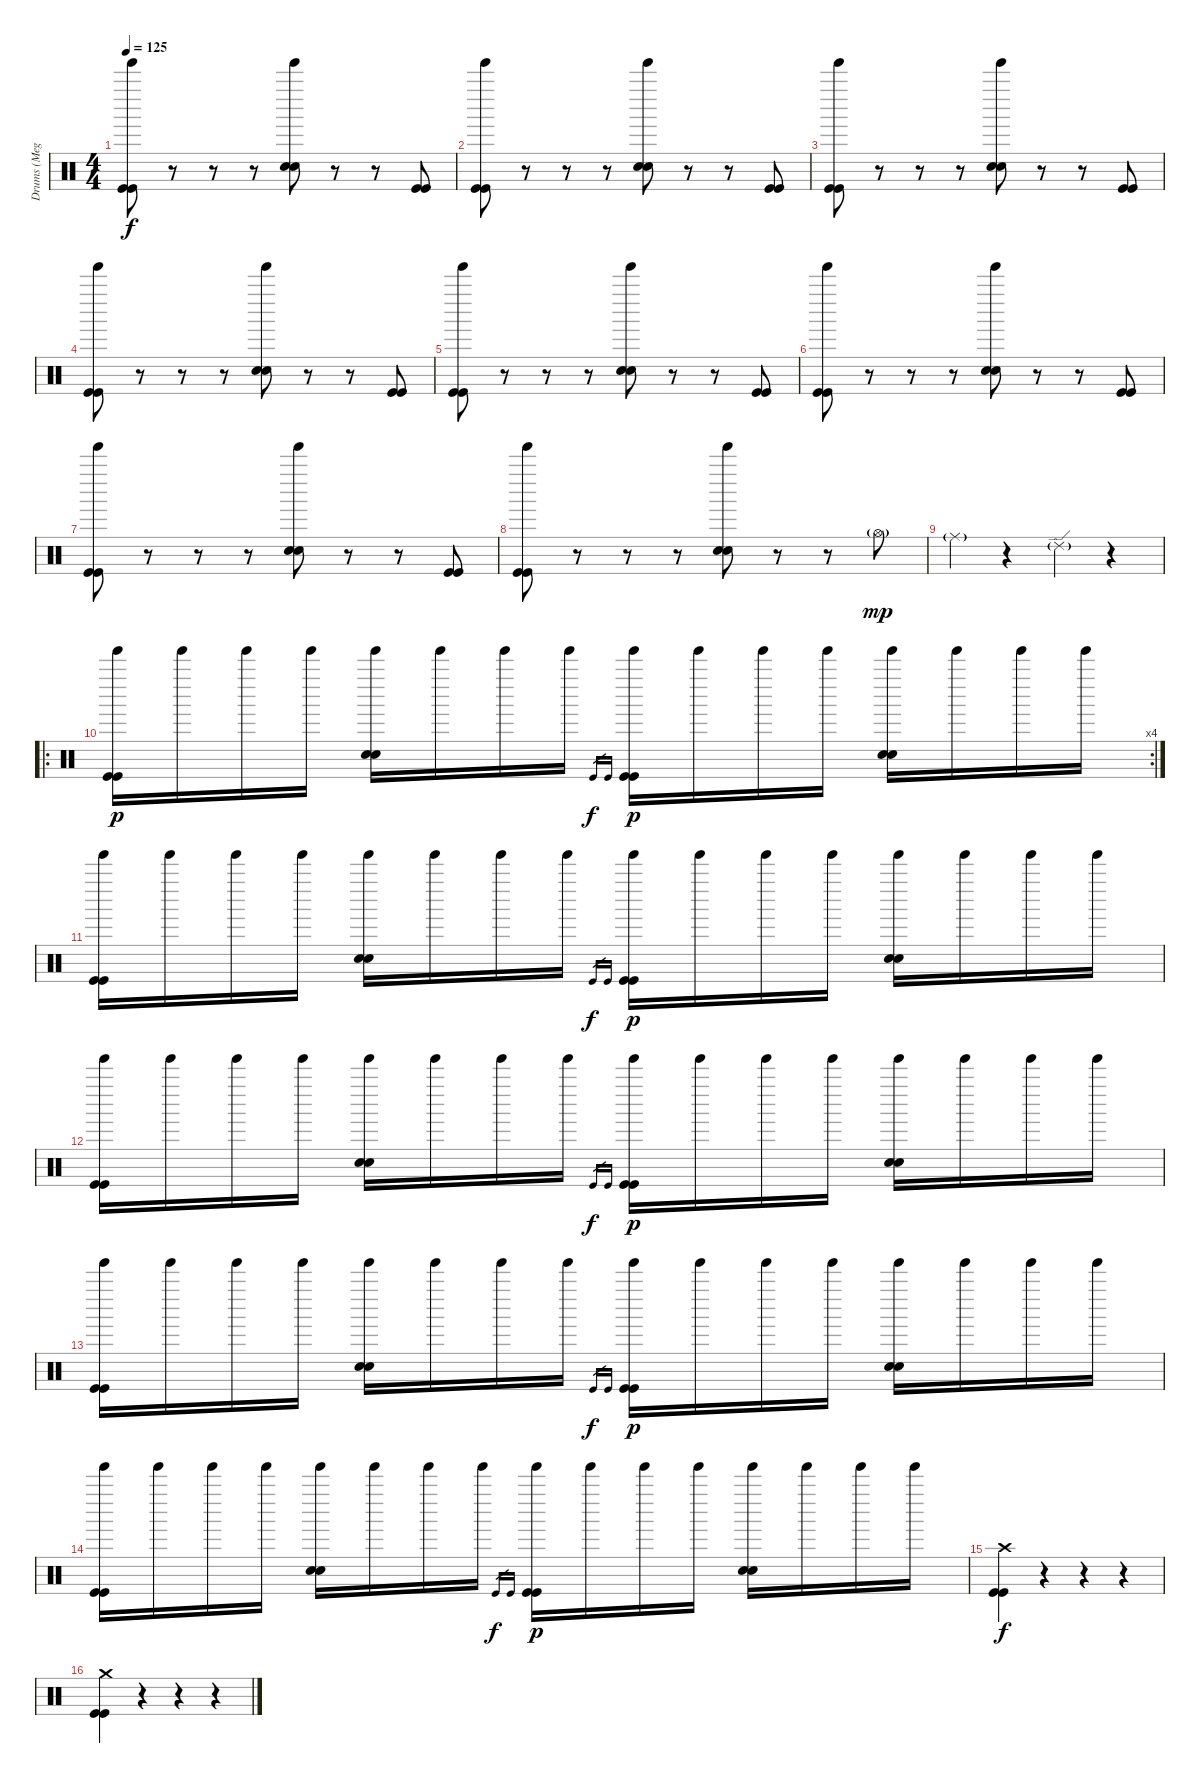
\track ("Drums (Meg)" "Drums (Meg") {instrument percussion}
\staff {score}
\articulation defaults
\ts (4 4)
\tempo 125
\clef neutral
\ks c
("Tinkle Bell (hit)" "Kick (hit)" "Kick (hit)").8{dy f} r.8 r.8 r.8 ("Tinkle Bell (hit)" "Snare (hit) 2" "Snare (hit) 2").8 r.8 r.8 ("Kick (hit)" "Kick (hit)").8 |
("Tinkle Bell (hit)" "Kick (hit)" "Kick (hit)").8 r.8 r.8 r.8 ("Tinkle Bell (hit)" "Snare (hit) 2" "Snare (hit) 2").8 r.8 r.8 ("Kick (hit)" "Kick (hit)").8 |
("Tinkle Bell (hit)" "Kick (hit)" "Kick (hit)").8 r.8 r.8 r.8 ("Tinkle Bell (hit)" "Snare (hit) 2" "Snare (hit) 2").8 r.8 r.8 ("Kick (hit)" "Kick (hit)").8 |
("Tinkle Bell (hit)" "Kick (hit)" "Kick (hit)").8 r.8 r.8 r.8 ("Tinkle Bell (hit)" "Snare (hit) 2" "Snare (hit) 2").8 r.8 r.8 ("Kick (hit)" "Kick (hit)").8 |
("Tinkle Bell (hit)" "Kick (hit)" "Kick (hit)").8 r.8 r.8 r.8 ("Tinkle Bell (hit)" "Snare (hit) 2" "Snare (hit) 2").8 r.8 r.8 ("Kick (hit)" "Kick (hit)").8 |
("Tinkle Bell (hit)" "Kick (hit)" "Kick (hit)").8 r.8 r.8 r.8 ("Tinkle Bell (hit)" "Snare (hit) 2" "Snare (hit) 2").8 r.8 r.8 ("Kick (hit)" "Kick (hit)").8 |
("Tinkle Bell (hit)" "Kick (hit)" "Kick (hit)").8 r.8 r.8 r.8 ("Tinkle Bell (hit)" "Snare (hit) 2" "Snare (hit) 2").8 r.8 r.8 ("Kick (hit)" "Kick (hit)").8 |
("Tinkle Bell (hit)" "Kick (hit)" "Kick (hit)").8 r.8 r.8 r.8 ("Tinkle Bell (hit)" "Snare (hit) 2" "Snare (hit) 2").8 r.8 r.8 "Hi-Hat (open)"{g}.8{dy mp} |
"Ride (middle)"{g}.4 r.4 "Ride (edge) 2"{g}.4 r.4 |
\ro
\rc 4
("Tinkle Bell (hit)" "Kick (hit)" "Kick (hit)").16{dy p} "Tinkle Bell (hit)".16 "Tinkle Bell (hit)".16 "Tinkle Bell (hit)".16 ("Tinkle Bell (hit)" "Snare (hit) 2" "Snare (hit) 2").16 "Tinkle Bell (hit)".16 "Tinkle Bell (hit)".16 "Tinkle Bell (hit)".16 "Kick (hit)".16{gr dy f} "Kick (hit)".16{gr} ("Tinkle Bell (hit)" "Kick (hit)" "Kick (hit)").16{dy p} "Tinkle Bell (hit)".16 "Tinkle Bell (hit)".16 "Tinkle Bell (hit)".16 ("Tinkle Bell (hit)" "Snare (hit) 2" "Snare (hit) 2").16 "Tinkle Bell (hit)".16 "Tinkle Bell (hit)".16 "Tinkle Bell (hit)".16 |
("Tinkle Bell (hit)" "Kick (hit)" "Kick (hit)").16 "Tinkle Bell (hit)".16 "Tinkle Bell (hit)".16 "Tinkle Bell (hit)".16 ("Tinkle Bell (hit)" "Snare (hit) 2" "Snare (hit) 2").16 "Tinkle Bell (hit)".16 "Tinkle Bell (hit)".16 "Tinkle Bell (hit)".16 "Kick (hit)".16{gr dy f} "Kick (hit)".16{gr} ("Tinkle Bell (hit)" "Kick (hit)" "Kick (hit)").16{dy p} "Tinkle Bell (hit)".16 "Tinkle Bell (hit)".16 "Tinkle Bell (hit)".16 ("Tinkle Bell (hit)" "Snare (hit) 2" "Snare (hit) 2").16 "Tinkle Bell (hit)".16 "Tinkle Bell (hit)".16 "Tinkle Bell (hit)".16 |
("Tinkle Bell (hit)" "Kick (hit)" "Kick (hit)").16 "Tinkle Bell (hit)".16 "Tinkle Bell (hit)".16 "Tinkle Bell (hit)".16 ("Tinkle Bell (hit)" "Snare (hit) 2" "Snare (hit) 2").16 "Tinkle Bell (hit)".16 "Tinkle Bell (hit)".16 "Tinkle Bell (hit)".16 "Kick (hit)".16{gr dy f} "Kick (hit)".16{gr} ("Tinkle Bell (hit)" "Kick (hit)" "Kick (hit)").16{dy p} "Tinkle Bell (hit)".16 "Tinkle Bell (hit)".16 "Tinkle Bell (hit)".16 ("Tinkle Bell (hit)" "Snare (hit) 2" "Snare (hit) 2").16 "Tinkle Bell (hit)".16 "Tinkle Bell (hit)".16 "Tinkle Bell (hit)".16 |
("Tinkle Bell (hit)" "Kick (hit)" "Kick (hit)").16 "Tinkle Bell (hit)".16 "Tinkle Bell (hit)".16 "Tinkle Bell (hit)".16 ("Tinkle Bell (hit)" "Snare (hit) 2" "Snare (hit) 2").16 "Tinkle Bell (hit)".16 "Tinkle Bell (hit)".16 "Tinkle Bell (hit)".16 "Kick (hit)".16{gr dy f} "Kick (hit)".16{gr} ("Tinkle Bell (hit)" "Kick (hit)" "Kick (hit)").16{dy p} "Tinkle Bell (hit)".16 "Tinkle Bell (hit)".16 "Tinkle Bell (hit)".16 ("Tinkle Bell (hit)" "Snare (hit) 2" "Snare (hit) 2").16 "Tinkle Bell (hit)".16 "Tinkle Bell (hit)".16 "Tinkle Bell (hit)".16 |
("Tinkle Bell (hit)" "Kick (hit)" "Kick (hit)").16 "Tinkle Bell (hit)".16 "Tinkle Bell (hit)".16 "Tinkle Bell (hit)".16 ("Tinkle Bell (hit)" "Snare (hit) 2" "Snare (hit) 2").16 "Tinkle Bell (hit)".16 "Tinkle Bell (hit)".16 "Tinkle Bell (hit)".16 "Kick (hit)".16{gr dy f} "Kick (hit)".16{gr} ("Tinkle Bell (hit)" "Kick (hit)" "Kick (hit)").16{dy p} "Tinkle Bell (hit)".16 "Tinkle Bell (hit)".16 "Tinkle Bell (hit)".16 ("Tinkle Bell (hit)" "Snare (hit) 2" "Snare (hit) 2").16 "Tinkle Bell (hit)".16 "Tinkle Bell (hit)".16 "Tinkle Bell (hit)".16 |
("Crash high (hit)" "Kick (hit)" "Kick (hit)").4{dy f} r.4 r.4 r.4 |
("Crash medium (hit)" "Kick (hit)" "Kick (hit)").4 r.4 r.4 r.4
